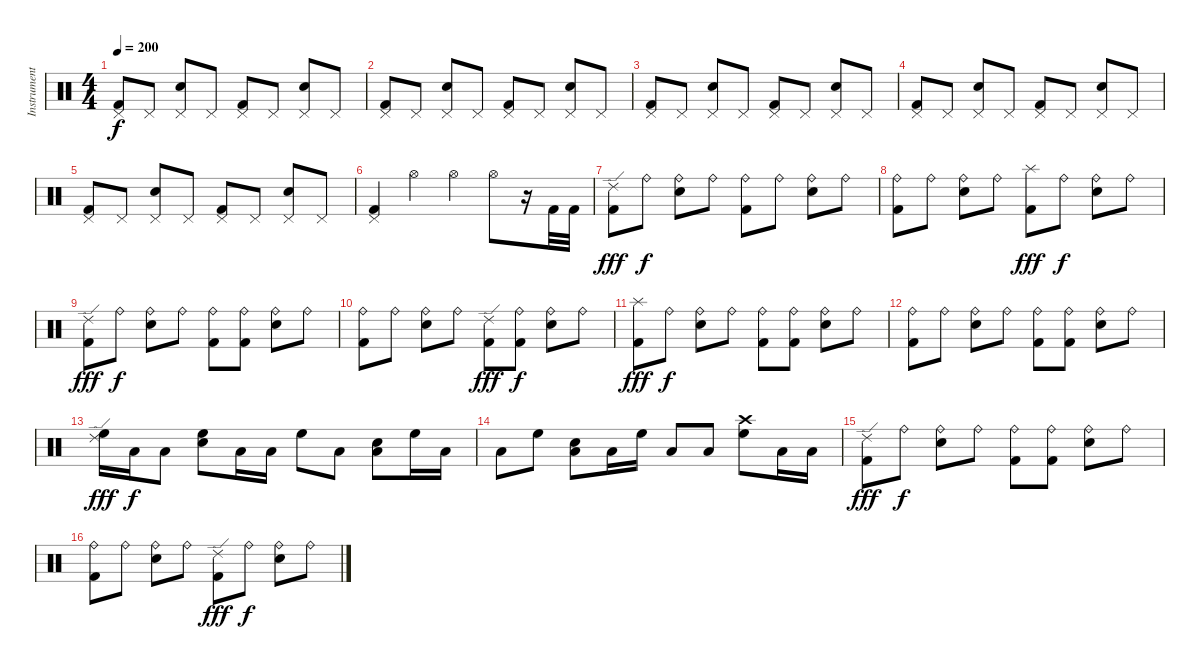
\track ("Instrument 03" "Instrument") {instrument percussion}
\staff {score}
\articulation defaults
\ts (4 4)
\tempo 200
\clef neutral
\ks c
("Kick (hit) 2" "Pedal Hi-Hat (hit)").8{dy f} "Pedal Hi-Hat (hit)".8 ("Snare (hit) 2" "Pedal Hi-Hat (hit)").8 "Pedal Hi-Hat (hit)".8 ("Kick (hit) 2" "Pedal Hi-Hat (hit)").8 "Pedal Hi-Hat (hit)".8 ("Snare (hit) 2" "Pedal Hi-Hat (hit)").8 "Pedal Hi-Hat (hit)".8 |
("Kick (hit) 2" "Pedal Hi-Hat (hit)").8 "Pedal Hi-Hat (hit)".8 ("Snare (hit) 2" "Pedal Hi-Hat (hit)").8 "Pedal Hi-Hat (hit)".8 ("Kick (hit) 2" "Pedal Hi-Hat (hit)").8 "Pedal Hi-Hat (hit)".8 ("Snare (hit) 2" "Pedal Hi-Hat (hit)").8 "Pedal Hi-Hat (hit)".8 |
("Kick (hit) 2" "Pedal Hi-Hat (hit)").8 "Pedal Hi-Hat (hit)".8 ("Snare (hit) 2" "Pedal Hi-Hat (hit)").8 "Pedal Hi-Hat (hit)".8 ("Kick (hit) 2" "Pedal Hi-Hat (hit)").8 "Pedal Hi-Hat (hit)".8 ("Snare (hit) 2" "Pedal Hi-Hat (hit)").8 "Pedal Hi-Hat (hit)".8 |
("Kick (hit) 2" "Pedal Hi-Hat (hit)").8 "Pedal Hi-Hat (hit)".8 ("Snare (hit) 2" "Pedal Hi-Hat (hit)").8 "Pedal Hi-Hat (hit)".8 ("Kick (hit) 2" "Pedal Hi-Hat (hit)").8 "Pedal Hi-Hat (hit)".8 ("Snare (hit) 2" "Pedal Hi-Hat (hit)").8 "Pedal Hi-Hat (hit)".8 |
("Kick (hit) 2" "Pedal Hi-Hat (hit)").8 "Pedal Hi-Hat (hit)".8 ("Snare (hit) 2" "Pedal Hi-Hat (hit)").8 "Pedal Hi-Hat (hit)".8 ("Kick (hit) 2" "Pedal Hi-Hat (hit)").8 "Pedal Hi-Hat (hit)".8 ("Snare (hit) 2" "Pedal Hi-Hat (hit)").8 "Pedal Hi-Hat (hit)".8 |
("Kick (hit) 2" "Pedal Hi-Hat (hit)").4 "Hi-Hat (open)".4 "Hi-Hat (open)".4 "Hi-Hat (open)".8 r.16 "Kick (hit) 2".32 "Kick (hit) 2".32 |
("Kick (hit) 2" "Ride (edge) 2").8{dy fff} "Ride (bell)".8{dy f} ("Snare (hit) 2" "Ride (bell)").8 "Ride (bell)".8 ("Kick (hit) 2" "Ride (bell)").8 "Ride (bell)".8 ("Snare (hit) 2" "Ride (bell)").8 "Ride (bell)".8 |
("Kick (hit) 2" "Ride (bell)").8 "Ride (bell)".8 ("Snare (hit) 2" "Ride (bell)").8 "Ride (bell)".8 ("Kick (hit) 2" "Splash (hit)").8{dy fff} "Ride (bell)".8{dy f} ("Snare (hit) 2" "Ride (bell)").8 "Ride (bell)".8 |
("Kick (hit) 2" "Ride (edge) 2").8{dy fff} "Ride (bell)".8{dy f} ("Snare (hit) 2" "Ride (bell)").8 "Ride (bell)".8 ("Kick (hit) 2" "Ride (bell)").8 ("Kick (hit) 2" "Ride (bell)").8 ("Snare (hit) 2" "Ride (bell)").8 "Ride (bell)".8 |
("Kick (hit) 2" "Ride (bell)").8 "Ride (bell)".8 ("Snare (hit) 2" "Ride (bell)").8 "Ride (bell)".8 ("Kick (hit) 2" "Ride (edge) 2").8{dy fff} ("Kick (hit) 2" "Ride (bell)").8{dy f} ("Snare (hit) 2" "Ride (bell)").8 "Ride (bell)".8 |
("Kick (hit) 2" "Splash (hit)").8{dy fff} "Ride (bell)".8{dy f} ("Snare (hit) 2" "Ride (bell)").8 "Ride (bell)".8 ("Kick (hit) 2" "Ride (bell)").8 ("Kick (hit) 2" "Ride (bell)").8 ("Snare (hit) 2" "Ride (bell)").8 "Ride (bell)".8 |
("Kick (hit) 2" "Ride (bell)").8 "Ride (bell)".8 ("Snare (hit) 2" "Ride (bell)").8 "Ride (bell)".8 ("Kick (hit) 2" "Ride (bell)").8 ("Kick (hit) 2" "Ride (bell)").8 ("Snare (hit) 2" "Ride (bell)").8 "Ride (bell)".8 |
("High Floor Tom (hit)" "Ride (edge) 2").16{dy fff} "Low Tom (hit)".16{dy f} "Low Floor Tom (hit)".8 ("Snare (hit) 2" "High Floor Tom (hit)").8 "Low Tom (hit)".16 "Low Floor Tom (hit)".16 "High Floor Tom (hit)".8 "Low Tom (hit)".8 ("Snare (hit) 2" "Low Floor Tom (hit)").8 "High Floor Tom (hit)".16 "Low Tom (hit)".16 |
"Low Floor Tom (hit)".8 "High Floor Tom (hit)".8 ("Snare (hit) 2" "Low Tom (hit)").8 "Low Floor Tom (hit)".16 "High Floor Tom (hit)".16 "Low Tom (hit)".8 "Low Floor Tom (hit)".8 ("Crash high (hit)" "High Floor Tom (hit)").8 "Low Tom (hit)".16 "Low Floor Tom (hit)".16 |
("Kick (hit) 2" "Ride (edge) 2").8{dy fff} "Ride (bell)".8{dy f} ("Snare (hit) 2" "Ride (bell)").8 "Ride (bell)".8 ("Kick (hit) 2" "Ride (bell)").8 ("Kick (hit) 2" "Ride (bell)").8 ("Snare (hit) 2" "Ride (bell)").8 "Ride (bell)".8 |
("Kick (hit) 2" "Ride (bell)").8 "Ride (bell)".8 ("Snare (hit) 2" "Ride (bell)").8 "Ride (bell)".8 ("Kick (hit) 2" "Ride (edge) 2").8{dy fff} "Ride (bell)".8{dy f} ("Snare (hit) 2" "Ride (bell)").8 "Ride (bell)".8
